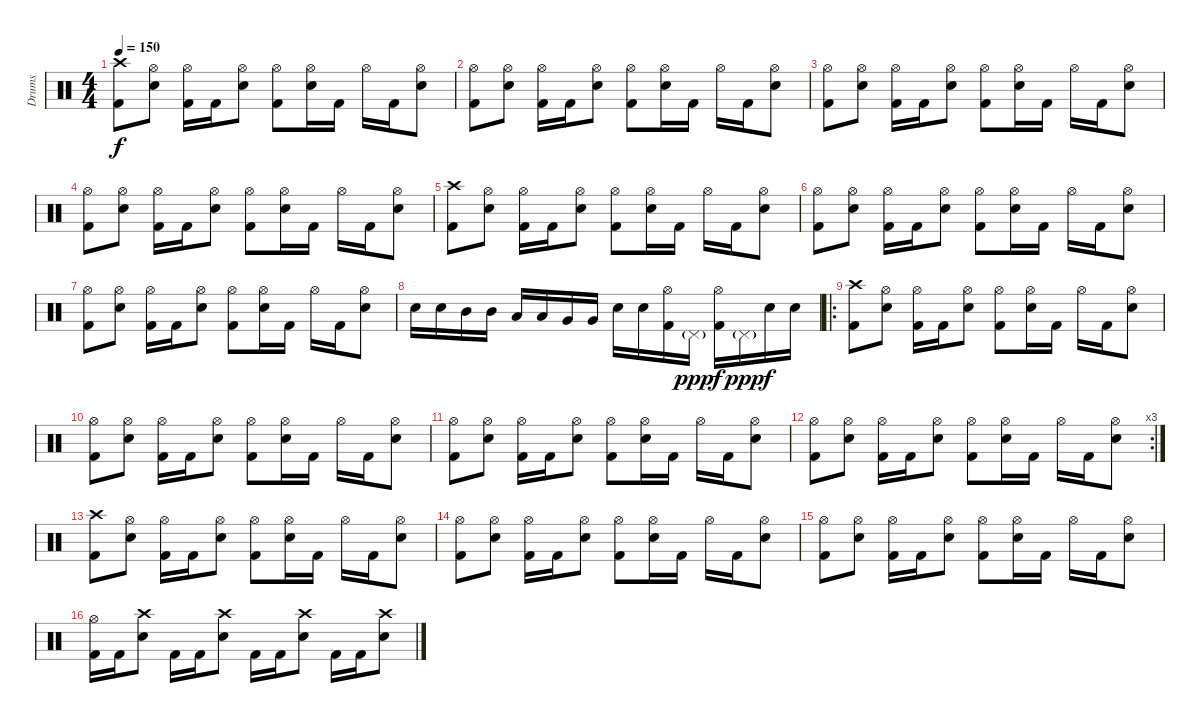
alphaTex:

\track ("Drums" "Drums") {instrument percussion}
\staff {score}
\articulation defaults
\ts (4 4)
\tempo 150
\clef neutral
\ks c
("Crash high (hit)" "Kick (hit) 2").8{dy f} ("Hi-Hat (open)" "Electric Snare (hit)").8 ("Hi-Hat (open)" "Kick (hit) 2").16 "Kick (hit) 2".16 ("Hi-Hat (open)" "Electric Snare (hit)").8 ("Hi-Hat (open)" "Kick (hit) 2").8 ("Hi-Hat (open)" "Electric Snare (hit)").16 "Kick (hit) 2".16 "Hi-Hat (open)".16 "Kick (hit) 2".16 ("Hi-Hat (open)" "Electric Snare (hit)").8 |
("Hi-Hat (open)" "Kick (hit) 2").8 ("Hi-Hat (open)" "Electric Snare (hit)").8 ("Hi-Hat (open)" "Kick (hit) 2").16 "Kick (hit) 2".16 ("Hi-Hat (open)" "Electric Snare (hit)").8 ("Hi-Hat (open)" "Kick (hit) 2").8 ("Hi-Hat (open)" "Electric Snare (hit)").16 "Kick (hit) 2".16 "Hi-Hat (open)".16 "Kick (hit) 2".16 ("Hi-Hat (open)" "Electric Snare (hit)").8 |
("Hi-Hat (open)" "Kick (hit) 2").8 ("Hi-Hat (open)" "Electric Snare (hit)").8 ("Hi-Hat (open)" "Kick (hit) 2").16 "Kick (hit) 2".16 ("Hi-Hat (open)" "Electric Snare (hit)").8 ("Hi-Hat (open)" "Kick (hit) 2").8 ("Hi-Hat (open)" "Electric Snare (hit)").16 "Kick (hit) 2".16 "Hi-Hat (open)".16 "Kick (hit) 2".16 ("Hi-Hat (open)" "Electric Snare (hit)").8 |
("Hi-Hat (open)" "Kick (hit) 2").8 ("Hi-Hat (open)" "Electric Snare (hit)").8 ("Hi-Hat (open)" "Kick (hit) 2").16 "Kick (hit) 2".16 ("Hi-Hat (open)" "Electric Snare (hit)").8 ("Hi-Hat (open)" "Kick (hit) 2").8 ("Hi-Hat (open)" "Electric Snare (hit)").16 "Kick (hit) 2".16 "Hi-Hat (open)".16 "Kick (hit) 2".16 ("Hi-Hat (open)" "Electric Snare (hit)").8 |
("Crash high (hit)" "Kick (hit) 2").8 ("Hi-Hat (open)" "Electric Snare (hit)").8 ("Hi-Hat (open)" "Kick (hit) 2").16 "Kick (hit) 2".16 ("Hi-Hat (open)" "Electric Snare (hit)").8 ("Hi-Hat (open)" "Kick (hit) 2").8 ("Hi-Hat (open)" "Electric Snare (hit)").16 "Kick (hit) 2".16 "Hi-Hat (open)".16 "Kick (hit) 2".16 ("Hi-Hat (open)" "Electric Snare (hit)").8 |
("Hi-Hat (open)" "Kick (hit) 2").8 ("Hi-Hat (open)" "Electric Snare (hit)").8 ("Hi-Hat (open)" "Kick (hit) 2").16 "Kick (hit) 2".16 ("Hi-Hat (open)" "Electric Snare (hit)").8 ("Hi-Hat (open)" "Kick (hit) 2").8 ("Hi-Hat (open)" "Electric Snare (hit)").16 "Kick (hit) 2".16 "Hi-Hat (open)".16 "Kick (hit) 2".16 ("Hi-Hat (open)" "Electric Snare (hit)").8 |
("Hi-Hat (open)" "Kick (hit) 2").8 ("Hi-Hat (open)" "Electric Snare (hit)").8 ("Hi-Hat (open)" "Kick (hit) 2").16 "Kick (hit) 2".16 ("Hi-Hat (open)" "Electric Snare (hit)").8 ("Hi-Hat (open)" "Kick (hit) 2").8 ("Hi-Hat (open)" "Electric Snare (hit)").16 "Kick (hit) 2".16 "Hi-Hat (open)".16 "Kick (hit) 2".16 ("Hi-Hat (open)" "Electric Snare (hit)").8 |
"Electric Snare (hit)".16 "Electric Snare (hit)".16 "Mid Tom (hit)".16 "Mid Tom (hit)".16 "Low Tom (hit)".16 "Low Tom (hit)".16 "Very Low Tom (hit)".16 "Very Low Tom (hit)".16 "Electric Snare (hit)".16 "Electric Snare (hit)".16 ("Hi-Hat (open)" "Kick (hit) 2").16 "Pedal Hi-Hat (hit)"{g}.16{dy ppp} ("Hi-Hat (open)" "Kick (hit) 2").16{dy f} "Pedal Hi-Hat (hit)"{g}.16{dy ppp} "Electric Snare (hit)".16{dy f} "Electric Snare (hit)".16 |
\ro
("Crash high (hit)" "Kick (hit) 2").8 ("Hi-Hat (open)" "Electric Snare (hit)").8 ("Hi-Hat (open)" "Kick (hit) 2").16 "Kick (hit) 2".16 ("Hi-Hat (open)" "Electric Snare (hit)").8 ("Hi-Hat (open)" "Kick (hit) 2").8 ("Hi-Hat (open)" "Electric Snare (hit)").16 "Kick (hit) 2".16 "Hi-Hat (open)".16 "Kick (hit) 2".16 ("Hi-Hat (open)" "Electric Snare (hit)").8 |
("Hi-Hat (open)" "Kick (hit) 2").8 ("Hi-Hat (open)" "Electric Snare (hit)").8 ("Hi-Hat (open)" "Kick (hit) 2").16 "Kick (hit) 2".16 ("Hi-Hat (open)" "Electric Snare (hit)").8 ("Hi-Hat (open)" "Kick (hit) 2").8 ("Hi-Hat (open)" "Electric Snare (hit)").16 "Kick (hit) 2".16 "Hi-Hat (open)".16 "Kick (hit) 2".16 ("Hi-Hat (open)" "Electric Snare (hit)").8 |
("Hi-Hat (open)" "Kick (hit) 2").8 ("Hi-Hat (open)" "Electric Snare (hit)").8 ("Hi-Hat (open)" "Kick (hit) 2").16 "Kick (hit) 2".16 ("Hi-Hat (open)" "Electric Snare (hit)").8 ("Hi-Hat (open)" "Kick (hit) 2").8 ("Hi-Hat (open)" "Electric Snare (hit)").16 "Kick (hit) 2".16 "Hi-Hat (open)".16 "Kick (hit) 2".16 ("Hi-Hat (open)" "Electric Snare (hit)").8 |
\rc 3
("Hi-Hat (open)" "Kick (hit) 2").8 ("Hi-Hat (open)" "Electric Snare (hit)").8 ("Hi-Hat (open)" "Kick (hit) 2").16 "Kick (hit) 2".16 ("Hi-Hat (open)" "Electric Snare (hit)").8 ("Hi-Hat (open)" "Kick (hit) 2").8 ("Hi-Hat (open)" "Electric Snare (hit)").16 "Kick (hit) 2".16 "Hi-Hat (open)".16 "Kick (hit) 2".16 ("Hi-Hat (open)" "Electric Snare (hit)").8 |
("Crash high (hit)" "Kick (hit) 2").8 ("Hi-Hat (open)" "Electric Snare (hit)").8 ("Hi-Hat (open)" "Kick (hit) 2").16 "Kick (hit) 2".16 ("Hi-Hat (open)" "Electric Snare (hit)").8 ("Hi-Hat (open)" "Kick (hit) 2").8 ("Hi-Hat (open)" "Electric Snare (hit)").16 "Kick (hit) 2".16 "Hi-Hat (open)".16 "Kick (hit) 2".16 ("Hi-Hat (open)" "Electric Snare (hit)").8 |
("Hi-Hat (open)" "Kick (hit) 2").8 ("Hi-Hat (open)" "Electric Snare (hit)").8 ("Hi-Hat (open)" "Kick (hit) 2").16 "Kick (hit) 2".16 ("Hi-Hat (open)" "Electric Snare (hit)").8 ("Hi-Hat (open)" "Kick (hit) 2").8 ("Hi-Hat (open)" "Electric Snare (hit)").16 "Kick (hit) 2".16 "Hi-Hat (open)".16 "Kick (hit) 2".16 ("Hi-Hat (open)" "Electric Snare (hit)").8 |
("Hi-Hat (open)" "Kick (hit) 2").8 ("Hi-Hat (open)" "Electric Snare (hit)").8 ("Hi-Hat (open)" "Kick (hit) 2").16 "Kick (hit) 2".16 ("Hi-Hat (open)" "Electric Snare (hit)").8 ("Hi-Hat (open)" "Kick (hit) 2").8 ("Hi-Hat (open)" "Electric Snare (hit)").16 "Kick (hit) 2".16 "Hi-Hat (open)".16 "Kick (hit) 2".16 ("Hi-Hat (open)" "Electric Snare (hit)").8 |
("Hi-Hat (open)" "Kick (hit) 2").16 "Kick (hit) 2".16 ("Crash high (hit)" "Electric Snare (hit)").8 "Kick (hit) 2".16 "Kick (hit) 2".16 ("Crash high (hit)" "Electric Snare (hit)").8 "Kick (hit) 2".16 "Kick (hit) 2".16 ("Crash high (hit)" "Electric Snare (hit)").8 "Kick (hit) 2".16 "Kick (hit) 2".16 ("Crash high (hit)" "Electric Snare (hit)").8
